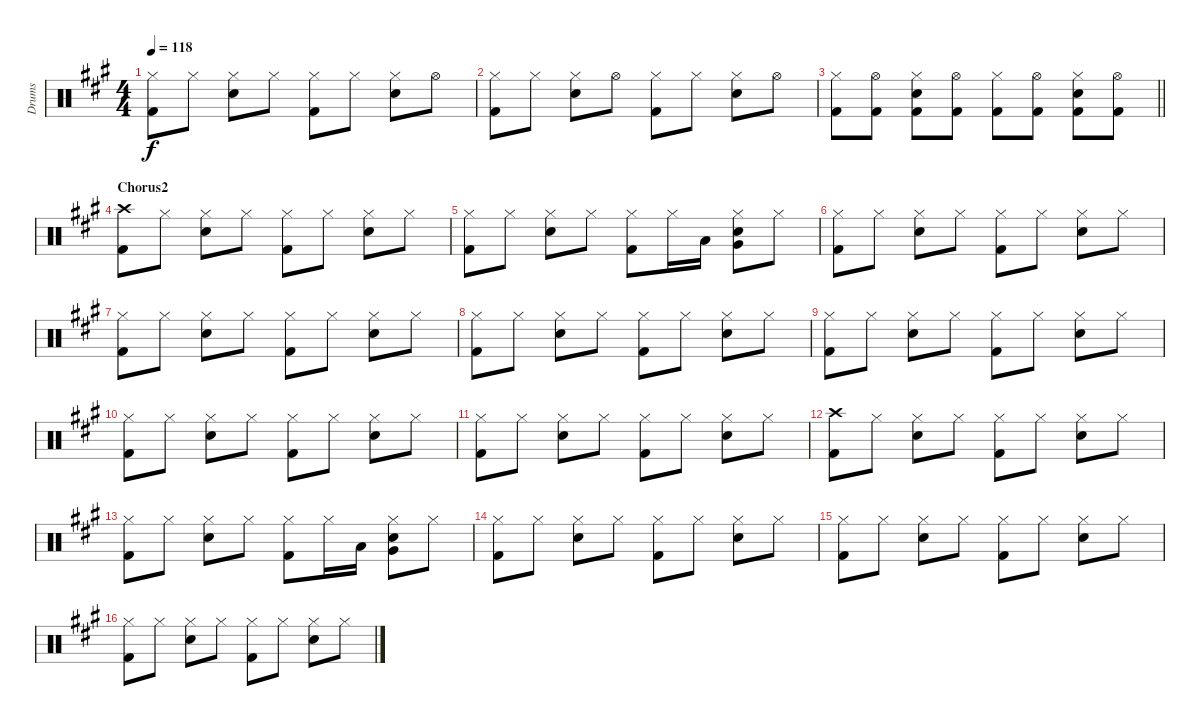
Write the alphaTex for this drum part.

\track ("Drums" "Drums") {instrument percussion}
\staff {score}
\articulation defaults
\ts (4 4)
\tempo 118
\clef neutral
\ks f#minor
("Hi-Hat (closed)" "Kick (hit) 2").8{dy f} "Hi-Hat (closed)".8 ("Hi-Hat (closed)" "Snare (hit) 2").8 "Hi-Hat (closed)".8 ("Hi-Hat (closed)" "Kick (hit) 2").8 "Hi-Hat (closed)".8 ("Hi-Hat (closed)" "Snare (hit) 2").8 "Hi-Hat (open)".8 |
("Hi-Hat (closed)" "Kick (hit) 2").8 "Hi-Hat (closed)".8 ("Hi-Hat (closed)" "Snare (hit) 2").8 "Hi-Hat (open)".8 ("Hi-Hat (closed)" "Kick (hit) 2").8 "Hi-Hat (closed)".8 ("Hi-Hat (closed)" "Snare (hit) 2").8 "Hi-Hat (open)".8 |
\barLineRight lightlight
("Hi-Hat (closed)" "Kick (hit) 2").8 ("Hi-Hat (open)" "Kick (hit) 2").8 ("Hi-Hat (closed)" "Snare (hit) 2" "Kick (hit) 2").8 ("Hi-Hat (open)" "Kick (hit) 2").8 ("Hi-Hat (closed)" "Kick (hit) 2").8 ("Hi-Hat (open)" "Kick (hit) 2").8 ("Hi-Hat (closed)" "Snare (hit) 2" "Kick (hit) 2").8 ("Hi-Hat (open)" "Kick (hit) 2").8 |
\section ("" "Chorus2")
("Crash high (hit)" "Kick (hit) 2").8 "Hi-Hat (closed)".8 ("Hi-Hat (closed)" "Snare (hit) 2").8 "Hi-Hat (closed)".8 ("Hi-Hat (closed)" "Kick (hit) 2").8 "Hi-Hat (closed)".8 ("Hi-Hat (closed)" "Snare (hit) 2").8 "Hi-Hat (closed)".8 |
("Hi-Hat (closed)" "Kick (hit) 2").8 "Hi-Hat (closed)".8 ("Hi-Hat (closed)" "Snare (hit) 2").8 "Hi-Hat (closed)".8 ("Hi-Hat (closed)" "Kick (hit) 2").8 "Hi-Hat (closed)".16 "Low Floor Tom (hit)".16 ("Hi-Hat (closed)" "Very Low Tom (hit)" "Snare (hit) 2").8 "Hi-Hat (closed)".8 |
("Hi-Hat (closed)" "Kick (hit) 2").8 "Hi-Hat (closed)".8 ("Hi-Hat (closed)" "Snare (hit) 2").8 "Hi-Hat (closed)".8 ("Hi-Hat (closed)" "Kick (hit) 2").8 "Hi-Hat (closed)".8 ("Hi-Hat (closed)" "Snare (hit) 2").8 "Hi-Hat (closed)".8 |
("Hi-Hat (closed)" "Kick (hit) 2").8 "Hi-Hat (closed)".8 ("Hi-Hat (closed)" "Snare (hit) 2").8 "Hi-Hat (closed)".8 ("Hi-Hat (closed)" "Kick (hit) 2").8 "Hi-Hat (closed)".8 ("Hi-Hat (closed)" "Snare (hit) 2").8 "Hi-Hat (closed)".8 |
("Hi-Hat (closed)" "Kick (hit) 2").8 "Hi-Hat (closed)".8 ("Hi-Hat (closed)" "Snare (hit) 2").8 "Hi-Hat (closed)".8 ("Hi-Hat (closed)" "Kick (hit) 2").8 "Hi-Hat (closed)".8 ("Hi-Hat (closed)" "Snare (hit) 2").8 "Hi-Hat (closed)".8 |
("Hi-Hat (closed)" "Kick (hit) 2").8 "Hi-Hat (closed)".8 ("Hi-Hat (closed)" "Snare (hit) 2").8 "Hi-Hat (closed)".8 ("Hi-Hat (closed)" "Kick (hit) 2").8 "Hi-Hat (closed)".8 ("Hi-Hat (closed)" "Snare (hit) 2").8 "Hi-Hat (closed)".8 |
("Hi-Hat (closed)" "Kick (hit) 2").8 "Hi-Hat (closed)".8 ("Hi-Hat (closed)" "Snare (hit) 2").8 "Hi-Hat (closed)".8 ("Hi-Hat (closed)" "Kick (hit) 2").8 "Hi-Hat (closed)".8 ("Hi-Hat (closed)" "Snare (hit) 2").8 "Hi-Hat (closed)".8 |
("Hi-Hat (closed)" "Kick (hit) 2").8 "Hi-Hat (closed)".8 ("Hi-Hat (closed)" "Snare (hit) 2").8 "Hi-Hat (closed)".8 ("Hi-Hat (closed)" "Kick (hit) 2").8 "Hi-Hat (closed)".8 ("Hi-Hat (closed)" "Snare (hit) 2").8 "Hi-Hat (closed)".8 |
("Crash high (hit)" "Kick (hit) 2").8 "Hi-Hat (closed)".8 ("Hi-Hat (closed)" "Snare (hit) 2").8 "Hi-Hat (closed)".8 ("Hi-Hat (closed)" "Kick (hit) 2").8 "Hi-Hat (closed)".8 ("Hi-Hat (closed)" "Snare (hit) 2").8 "Hi-Hat (closed)".8 |
("Hi-Hat (closed)" "Kick (hit) 2").8 "Hi-Hat (closed)".8 ("Hi-Hat (closed)" "Snare (hit) 2").8 "Hi-Hat (closed)".8 ("Hi-Hat (closed)" "Kick (hit) 2").8 "Hi-Hat (closed)".16 "Low Floor Tom (hit)".16 ("Hi-Hat (closed)" "Very Low Tom (hit)" "Snare (hit) 2").8 "Hi-Hat (closed)".8 |
("Hi-Hat (closed)" "Kick (hit) 2").8 "Hi-Hat (closed)".8 ("Hi-Hat (closed)" "Snare (hit) 2").8 "Hi-Hat (closed)".8 ("Hi-Hat (closed)" "Kick (hit) 2").8 "Hi-Hat (closed)".8 ("Hi-Hat (closed)" "Snare (hit) 2").8 "Hi-Hat (closed)".8 |
("Hi-Hat (closed)" "Kick (hit) 2").8 "Hi-Hat (closed)".8 ("Hi-Hat (closed)" "Snare (hit) 2").8 "Hi-Hat (closed)".8 ("Hi-Hat (closed)" "Kick (hit) 2").8 "Hi-Hat (closed)".8 ("Hi-Hat (closed)" "Snare (hit) 2").8 "Hi-Hat (closed)".8 |
("Hi-Hat (closed)" "Kick (hit) 2").8 "Hi-Hat (closed)".8 ("Hi-Hat (closed)" "Snare (hit) 2").8 "Hi-Hat (closed)".8 ("Hi-Hat (closed)" "Kick (hit) 2").8 "Hi-Hat (closed)".8 ("Hi-Hat (closed)" "Snare (hit) 2").8 "Hi-Hat (closed)".8
